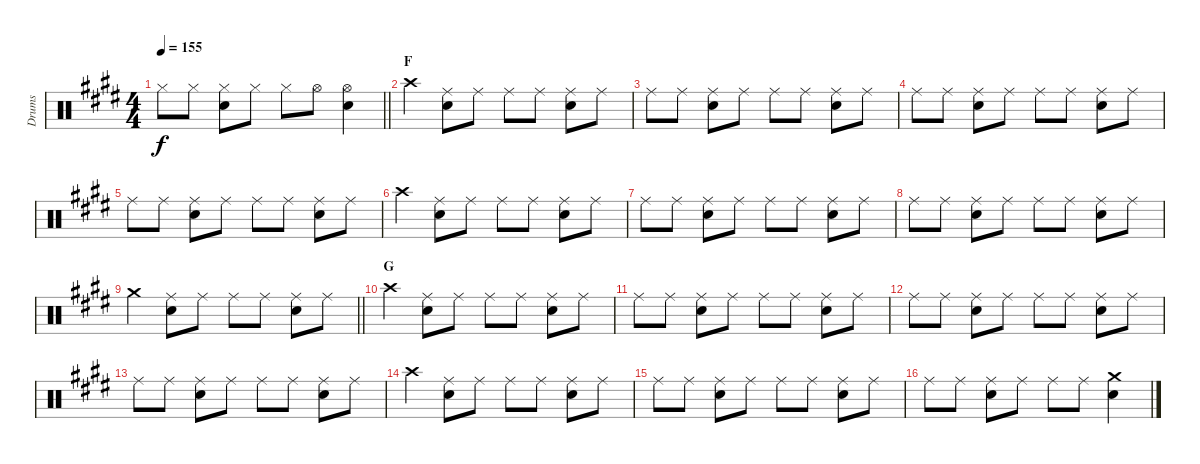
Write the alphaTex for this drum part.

\track ("Drums" "Drums") {instrument percussion}
\staff {score}
\articulation defaults
\ts (4 4)
\tempo 155
\clef neutral
\barLineRight lightlight
\ks e "Hi-Hat (closed)".8{dy f} "Hi-Hat (closed)".8
("Hi-Hat (closed)" "Snare (hit) 2").8 "Hi-Hat (closed)".8 "Hi-Hat (closed)".8 "Hi-Hat (open)".8 ("Hi-Hat (open)" "Snare (hit) 2").4 |
\section ("" "F")
"Crash high (hit)".4 ("Ride (middle)" "Snare (hit) 2").8 "Ride (middle)".8 "Ride (middle)".8 "Ride (middle)".8 ("Ride (middle)" "Snare (hit) 2").8 "Ride (middle)".8 |
"Ride (middle)".8 "Ride (middle)".8 ("Ride (middle)" "Snare (hit) 2").8 "Ride (middle)".8 "Ride (middle)".8 "Ride (middle)".8 ("Ride (middle)" "Snare (hit) 2").8 "Ride (middle)".8 |
"Ride (middle)".8 "Ride (middle)".8 ("Ride (middle)" "Snare (hit) 2").8 "Ride (middle)".8 "Ride (middle)".8 "Ride (middle)".8 ("Ride (middle)" "Snare (hit) 2").8 "Ride (middle)".8 |
"Ride (middle)".8 "Ride (middle)".8 ("Ride (middle)" "Snare (hit) 2").8 "Ride (middle)".8 "Ride (middle)".8 "Ride (middle)".8 ("Ride (middle)" "Snare (hit) 2").8 "Ride (middle)".8 |
"Crash high (hit)".4 ("Ride (middle)" "Snare (hit) 2").8 "Ride (middle)".8 "Ride (middle)".8 "Ride (middle)".8 ("Ride (middle)" "Snare (hit) 2").8 "Ride (middle)".8 |
"Ride (middle)".8 "Ride (middle)".8 ("Ride (middle)" "Snare (hit) 2").8 "Ride (middle)".8 "Ride (middle)".8 "Ride (middle)".8 ("Ride (middle)" "Snare (hit) 2").8 "Ride (middle)".8 |
"Ride (middle)".8 "Ride (middle)".8 ("Ride (middle)" "Snare (hit) 2").8 "Ride (middle)".8 "Ride (middle)".8 "Ride (middle)".8 ("Ride (middle)" "Snare (hit) 2").8 "Ride (middle)".8 |
\barLineRight lightlight "Crash medium (hit)".4
("Ride (middle)" "Snare (hit) 2").8 "Ride (middle)".8 "Ride (middle)".8 "Ride (middle)".8 ("Ride (middle)" "Snare (hit) 2").8 "Ride (middle)".8 |
\section ("" "G")
"Crash high (hit)".4 ("Ride (middle)" "Snare (hit) 2").8 "Ride (middle)".8 "Ride (middle)".8 "Ride (middle)".8 ("Ride (middle)" "Snare (hit) 2").8 "Ride (middle)".8 |
"Ride (middle)".8 "Ride (middle)".8 ("Ride (middle)" "Snare (hit) 2").8 "Ride (middle)".8 "Ride (middle)".8 "Ride (middle)".8 ("Ride (middle)" "Snare (hit) 2").8 "Ride (middle)".8 |
"Ride (middle)".8 "Ride (middle)".8 ("Ride (middle)" "Snare (hit) 2").8 "Ride (middle)".8 "Ride (middle)".8 "Ride (middle)".8 ("Ride (middle)" "Snare (hit) 2").8 "Ride (middle)".8 |
"Ride (middle)".8 "Ride (middle)".8 ("Ride (middle)" "Snare (hit) 2").8 "Ride (middle)".8 "Ride (middle)".8 "Ride (middle)".8 ("Ride (middle)" "Snare (hit) 2").8 "Ride (middle)".8 |
"Crash high (hit)".4 ("Ride (middle)" "Snare (hit) 2").8 "Ride (middle)".8 "Ride (middle)".8 "Ride (middle)".8 ("Ride (middle)" "Snare (hit) 2").8 "Ride (middle)".8 |
"Ride (middle)".8 "Ride (middle)".8 ("Ride (middle)" "Snare (hit) 2").8 "Ride (middle)".8 "Ride (middle)".8 "Ride (middle)".8 ("Ride (middle)" "Snare (hit) 2").8 "Ride (middle)".8 |
"Ride (middle)".8 "Ride (middle)".8 ("Ride (middle)" "Snare (hit) 2").8 "Ride (middle)".8 "Ride (middle)".8 "Ride (middle)".8 ("Crash medium (hit)" "Snare (hit) 2").4
